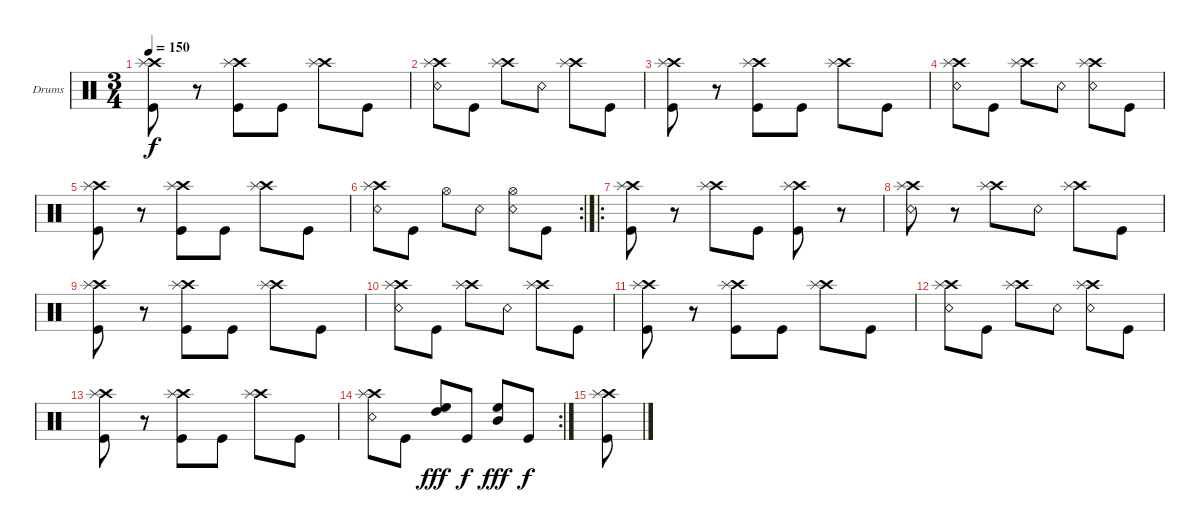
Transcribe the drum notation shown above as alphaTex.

\defaultSystemsLayout 4
\bracketExtendMode groupsimilarinstruments
\firstSystemTrackNameOrientation horizontal
\otherSystemsTrackNameOrientation horizontal
\track ("Scott" "Drums") {mute instrument percussion}
\staff {score}
\articulation defaults
\ts (3 4)
\tempo 150
\clef neutral
\scale
0.333333
\ks c
("Kick (hit)" "Crash high (hit)" "Splash (hit)").8{dy f} r.8 ("Crash high (hit)" "Splash (hit)" "Kick (hit)").8 "Kick (hit)".8 ("Crash high (hit)" "Splash (hit)").8 "Kick (hit)".8 |
\scale
0.333333 ("Snare (rim shot)" "Crash high (hit)" "Splash (hit)").8 "Kick (hit)".8 ("Crash high (hit)" "Splash (hit)").8 "Snare (rim shot)".8 ("Crash high (hit)" "Splash (hit)").8 "Kick (hit)".8 |
\scale
0.333333 ("Kick (hit)" "Crash high (hit)" "Splash (hit)").8 r.8 ("Kick (hit)" "Crash high (hit)" "Splash (hit)").8 "Kick (hit)".8 ("Crash high (hit)" "Splash (hit)").8 "Kick (hit)".8 |
\scale
0.333333 ("Snare (rim shot)" "Crash high (hit)" "Splash (hit)").8 "Kick (hit)".8 ("Crash high (hit)" "Splash (hit)").8 "Snare (rim shot)".8 ("Crash high (hit)" "Splash (hit)" "Snare (rim shot)").8 "Kick (hit)".8 |
\scale
0.333333 ("Kick (hit)" "Crash high (hit)" "Splash (hit)").8 r.8 ("Kick (hit)" "Crash high (hit)" "Splash (hit)").8 "Kick (hit)".8 ("Crash high (hit)" "Splash (hit)").8 "Kick (hit)".8 |
\rc 2
\scale
0.333333 ("Snare (rim shot)" "Crash high (hit)" "Splash (hit)").8 "Kick (hit)".8 "Hi-Hat (open)".8 "Snare (rim shot)".8 ("Snare (rim shot)" "Hi-Hat (open)").8 "Kick (hit)".8 |
\ro
\scale
0.365079 ("Kick (hit)" "Crash high (hit)" "Splash (hit)").8 r.8 ("Crash high (hit)" "Splash (hit)").8 "Kick (hit)".8 ("Crash high (hit)" "Splash (hit)" "Kick (hit)").8 r.8 |
\scale
0.301587 ("Snare (rim shot)" "Crash high (hit)" "Splash (hit)").8 r.8 ("Crash high (hit)" "Splash (hit)").8 "Snare (rim shot)".8 ("Crash high (hit)" "Splash (hit)").8 "Kick (hit)".8 |
\scale
0.333333 ("Kick (hit)" "Crash high (hit)" "Splash (hit)").8 r.8 ("Crash high (hit)" "Splash (hit)" "Kick (hit)").8 "Kick (hit)".8 ("Crash high (hit)" "Splash (hit)").8 "Kick (hit)".8 |
\scale
0.333333 ("Snare (rim shot)" "Crash high (hit)" "Splash (hit)").8 "Kick (hit)".8 ("Crash high (hit)" "Splash (hit)").8 "Snare (rim shot)".8 ("Crash high (hit)" "Splash (hit)").8 "Kick (hit)".8 |
\scale
0.333333 ("Kick (hit)" "Crash high (hit)" "Splash (hit)").8 r.8 ("Kick (hit)" "Crash high (hit)" "Splash (hit)").8 "Kick (hit)".8 ("Crash high (hit)" "Splash (hit)").8 "Kick (hit)".8 |
\scale
0.322034 ("Snare (rim shot)" "Crash high (hit)" "Splash (hit)").8 "Kick (hit)".8 ("Crash high (hit)" "Splash (hit)").8 "Snare (rim shot)".8 ("Crash high (hit)" "Splash (hit)" "Snare (rim shot)").8 "Kick (hit)".8 |
\scale
0.322034 ("Kick (hit)" "Crash high (hit)" "Splash (hit)").8 r.8 ("Kick (hit)" "Crash high (hit)" "Splash (hit)").8 "Kick (hit)".8 ("Crash high (hit)" "Splash (hit)").8 "Kick (hit)".8 |
\rc 2
\scale
0.355932 ("Snare (rim shot)" "Crash high (hit)" "Splash (hit)").8 "Kick (hit)".8 ("High Tom (hit)" "High Floor Tom (hit)").8{dy fff} "Kick (hit)".8{dy f} ("High Floor Tom (hit)" "Mid Tom (hit)").8{dy fff} "Kick (hit)".8{dy f} |
\scale
0.333333 ("Kick (hit)" "Crash high (hit)" "Splash (hit)").8 |
\scale
0.333333
